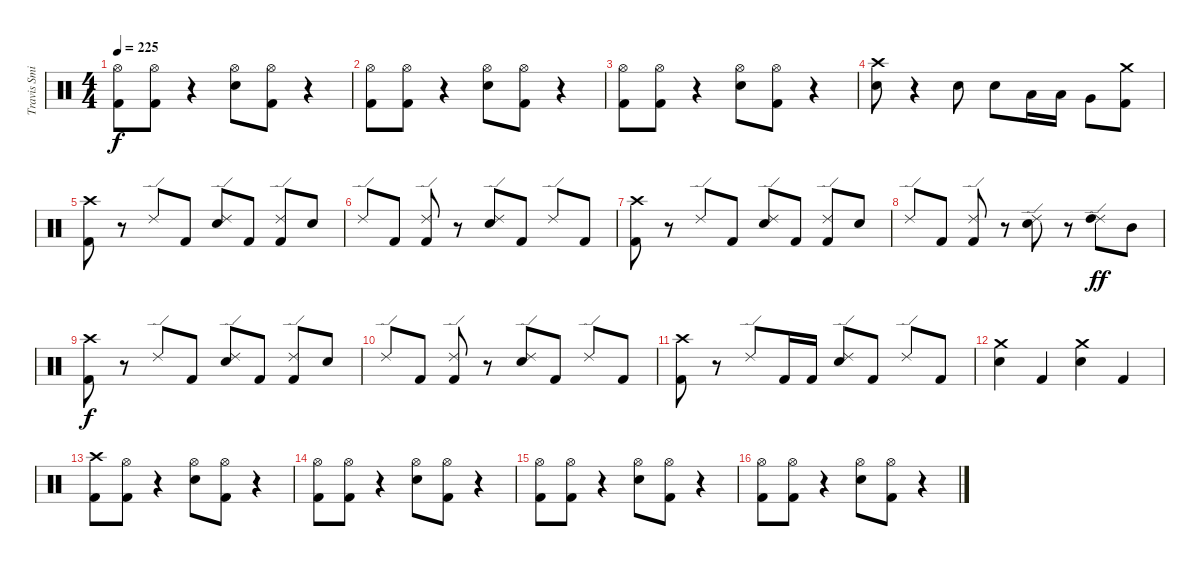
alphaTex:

\track ("Travis Smith" "Travis Smi") {instrument percussion}
\staff {score}
\articulation defaults
\ts (4 4)
\tempo 225
\clef neutral
\ks c
("Hi-Hat (open)" "Kick (hit) 2").8{dy f} ("Hi-Hat (open)" "Kick (hit) 2").8 r.4 ("Hi-Hat (open)" "Electric Snare (hit)").8 ("Hi-Hat (open)" "Kick (hit) 2").8 r.4 |
("Hi-Hat (open)" "Kick (hit) 2").8 ("Hi-Hat (open)" "Kick (hit) 2").8 r.4 ("Hi-Hat (open)" "Electric Snare (hit)").8 ("Hi-Hat (open)" "Kick (hit) 2").8 r.4 |
("Hi-Hat (open)" "Kick (hit) 2").8 ("Hi-Hat (open)" "Kick (hit) 2").8 r.4 ("Hi-Hat (open)" "Electric Snare (hit)").8 ("Hi-Hat (open)" "Kick (hit) 2").8 r.4 |
("Crash high (hit)" "Electric Snare (hit)").8 r.4 "Electric Snare (hit)".8 "Electric Snare (hit)".8 "Low Tom (hit)".16 "Low Tom (hit)".16 "Very Low Tom (hit)".8 ("Crash medium (hit)" "Kick (hit) 2").8 |
("Crash high (hit)" "Kick (hit) 2").8 r.8 "Ride (edge) 2".8 "Kick (hit) 2".8 ("Ride (edge) 2" "Electric Snare (hit)").8 "Kick (hit) 2".8 ("Ride (edge) 2" "Kick (hit) 2").8 "Electric Snare (hit)".8 |
"Ride (edge) 2".8 "Kick (hit) 2".8 ("Ride (edge) 2" "Kick (hit) 2").8 r.8 ("Ride (edge) 2" "Electric Snare (hit)").8 "Kick (hit) 2".8 "Ride (edge) 2".8 "Kick (hit) 2".8 |
("Crash high (hit)" "Kick (hit) 2").8 r.8 "Ride (edge) 2".8 "Kick (hit) 2".8 ("Ride (edge) 2" "Electric Snare (hit)").8 "Kick (hit) 2".8 ("Ride (edge) 2" "Kick (hit) 2").8 "Electric Snare (hit)".8 |
"Ride (edge) 2".8 "Kick (hit) 2".8 ("Ride (edge) 2" "Kick (hit) 2").8 r.8 ("Ride (edge) 2" "Electric Snare (hit)").8 r.8 ("Ride (edge) 2" "High Tom (hit)").8{dy ff} "Mid Tom (hit)".8 |
("Crash high (hit)" "Kick (hit) 2").8{dy f} r.8 "Ride (edge) 2".8 "Kick (hit) 2".8 ("Ride (edge) 2" "Electric Snare (hit)").8 "Kick (hit) 2".8 ("Ride (edge) 2" "Kick (hit) 2").8 "Electric Snare (hit)".8 |
"Ride (edge) 2".8 "Kick (hit) 2".8 ("Ride (edge) 2" "Kick (hit) 2").8 r.8 ("Ride (edge) 2" "Electric Snare (hit)").8 "Kick (hit) 2".8 "Ride (edge) 2".8 "Kick (hit) 2".8 |
("Crash high (hit)" "Kick (hit) 2").8 r.8 "Ride (edge) 2".8 "Kick (hit) 2".16 "Kick (hit) 2".16 ("Ride (edge) 2" "Electric Snare (hit)").8 "Kick (hit) 2".8 "Ride (edge) 2".8 "Kick (hit) 2".8 |
("Crash medium (hit)" "Electric Snare (hit)").4 "Kick (hit) 2".4 ("Crash medium (hit)" "Electric Snare (hit)").4 "Kick (hit) 2".4 |
("Crash high (hit)" "Kick (hit) 2").8 ("Hi-Hat (open)" "Kick (hit) 2").8 r.4 ("Hi-Hat (open)" "Electric Snare (hit)").8 ("Hi-Hat (open)" "Kick (hit) 2").8 r.4 |
("Hi-Hat (open)" "Kick (hit) 2").8 ("Hi-Hat (open)" "Kick (hit) 2").8 r.4 ("Hi-Hat (open)" "Electric Snare (hit)").8 ("Hi-Hat (open)" "Kick (hit) 2").8 r.4 |
("Hi-Hat (open)" "Kick (hit) 2").8 ("Hi-Hat (open)" "Kick (hit) 2").8 r.4 ("Hi-Hat (open)" "Electric Snare (hit)").8 ("Hi-Hat (open)" "Kick (hit) 2").8 r.4 |
("Hi-Hat (open)" "Kick (hit) 2").8 ("Hi-Hat (open)" "Kick (hit) 2").8 r.4 ("Hi-Hat (open)" "Electric Snare (hit)").8 ("Hi-Hat (open)" "Kick (hit) 2").8 r.4
